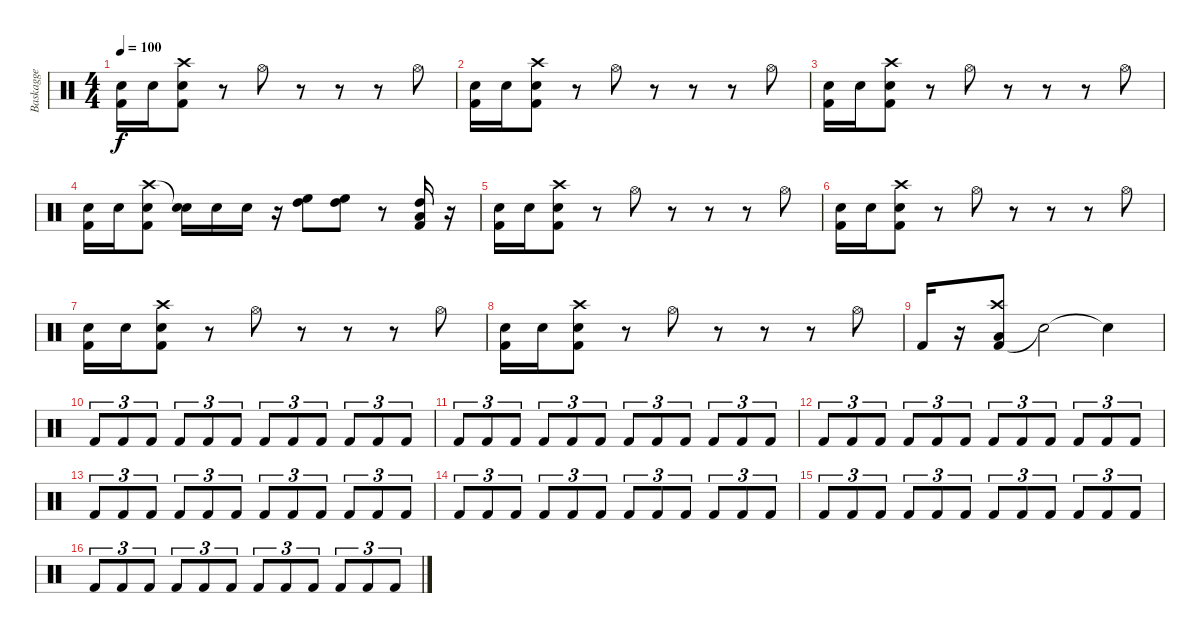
\track ("Baskagge" "Baskagge") {instrument percussion}
\staff {score}
\articulation defaults
\ts (4 4)
\tempo 100
\clef neutral
\ks c
("Kick (hit) 2" "Electric Snare (hit)").16{dy f} "Electric Snare (hit)".16 ("Crash high (hit)" "Kick (hit) 2" "Electric Snare (hit)").8 r.8 "Hi-Hat (open)".8 r.8 r.8 r.8 "Hi-Hat (open)".8 |
("Kick (hit) 2" "Electric Snare (hit)").16 "Electric Snare (hit)".16 ("Crash high (hit)" "Kick (hit) 2" "Electric Snare (hit)").8 r.8 "Hi-Hat (open)".8 r.8 r.8 r.8 "Hi-Hat (open)".8 |
("Kick (hit) 2" "Electric Snare (hit)").16 "Electric Snare (hit)".16 ("Crash high (hit)" "Kick (hit) 2" "Electric Snare (hit)").8 r.8 "Hi-Hat (open)".8 r.8 r.8 r.8 "Hi-Hat (open)".8 |
("Kick (hit) 2" "Electric Snare (hit)").16 "Electric Snare (hit)".16 ("Crash high (hit)" "Kick (hit) 2" "Electric Snare (hit)").8 ("Snare (hit)"{t} "Electric Snare (hit)").16 "Electric Snare (hit)".16 "Electric Snare (hit)".16 r.16 ("High Tom (hit)" "High Floor Tom (hit)").8 ("High Tom (hit)" "High Floor Tom (hit)").8 r.8 ("Kick (hit) 2" "High Tom (hit)" "Low Tom (hit)").16 r.16 |
("Kick (hit) 2" "Electric Snare (hit)").16 "Electric Snare (hit)".16 ("Crash high (hit)" "Kick (hit) 2" "Electric Snare (hit)").8 r.8 "Hi-Hat (open)".8 r.8 r.8 r.8 "Hi-Hat (open)".8 |
("Kick (hit) 2" "Electric Snare (hit)").16 "Electric Snare (hit)".16 ("Crash high (hit)" "Kick (hit) 2" "Electric Snare (hit)").8 r.8 "Hi-Hat (open)".8 r.8 r.8 r.8 "Hi-Hat (open)".8 |
("Kick (hit) 2" "Electric Snare (hit)").16 "Electric Snare (hit)".16 ("Crash high (hit)" "Kick (hit) 2" "Electric Snare (hit)").8 r.8 "Hi-Hat (open)".8 r.8 r.8 r.8 "Hi-Hat (open)".8 |
("Kick (hit) 2" "Electric Snare (hit)").16 "Electric Snare (hit)".16 ("Crash high (hit)" "Kick (hit) 2" "Electric Snare (hit)").8 r.8 "Hi-Hat (open)".8 r.8 r.8 r.8 "Hi-Hat (open)".8 |
"Kick (hit) 2".16 r.16 ("Kick (hit) 2" "Low Tom (hit)" "Crash high (hit)").8 "Snare (hit)"{t}.2 "Snare (hit)"{t}.4 |
"Kick (hit) 2".8{tu (3 2)} "Kick (hit) 2".8{tu (3 2)} "Kick (hit) 2".8{tu (3 2)} "Kick (hit) 2".8{tu (3 2)} "Kick (hit) 2".8{tu (3 2)} "Kick (hit) 2".8{tu (3 2)} "Kick (hit) 2".8{tu (3 2)} "Kick (hit) 2".8{tu (3 2)} "Kick (hit) 2".8{tu (3 2)} "Kick (hit) 2".8{tu (3 2)} "Kick (hit) 2".8{tu (3 2)} "Kick (hit) 2".8{tu (3 2)} |
"Kick (hit) 2".8{tu (3 2)} "Kick (hit) 2".8{tu (3 2)} "Kick (hit) 2".8{tu (3 2)} "Kick (hit) 2".8{tu (3 2)} "Kick (hit) 2".8{tu (3 2)} "Kick (hit) 2".8{tu (3 2)} "Kick (hit) 2".8{tu (3 2)} "Kick (hit) 2".8{tu (3 2)} "Kick (hit) 2".8{tu (3 2)} "Kick (hit) 2".8{tu (3 2)} "Kick (hit) 2".8{tu (3 2)} "Kick (hit) 2".8{tu (3 2)} |
"Kick (hit) 2".8{tu (3 2)} "Kick (hit) 2".8{tu (3 2)} "Kick (hit) 2".8{tu (3 2)} "Kick (hit) 2".8{tu (3 2)} "Kick (hit) 2".8{tu (3 2)} "Kick (hit) 2".8{tu (3 2)} "Kick (hit) 2".8{tu (3 2)} "Kick (hit) 2".8{tu (3 2)} "Kick (hit) 2".8{tu (3 2)} "Kick (hit) 2".8{tu (3 2)} "Kick (hit) 2".8{tu (3 2)} "Kick (hit) 2".8{tu (3 2)} |
"Kick (hit) 2".8{tu (3 2)} "Kick (hit) 2".8{tu (3 2)} "Kick (hit) 2".8{tu (3 2)} "Kick (hit) 2".8{tu (3 2)} "Kick (hit) 2".8{tu (3 2)} "Kick (hit) 2".8{tu (3 2)} "Kick (hit) 2".8{tu (3 2)} "Kick (hit) 2".8{tu (3 2)} "Kick (hit) 2".8{tu (3 2)} "Kick (hit) 2".8{tu (3 2)} "Kick (hit) 2".8{tu (3 2)} "Kick (hit) 2".8{tu (3 2)} |
"Kick (hit) 2".8{tu (3 2)} "Kick (hit) 2".8{tu (3 2)} "Kick (hit) 2".8{tu (3 2)} "Kick (hit) 2".8{tu (3 2)} "Kick (hit) 2".8{tu (3 2)} "Kick (hit) 2".8{tu (3 2)} "Kick (hit) 2".8{tu (3 2)} "Kick (hit) 2".8{tu (3 2)} "Kick (hit) 2".8{tu (3 2)} "Kick (hit) 2".8{tu (3 2)} "Kick (hit) 2".8{tu (3 2)} "Kick (hit) 2".8{tu (3 2)} |
"Kick (hit) 2".8{tu (3 2)} "Kick (hit) 2".8{tu (3 2)} "Kick (hit) 2".8{tu (3 2)} "Kick (hit) 2".8{tu (3 2)} "Kick (hit) 2".8{tu (3 2)} "Kick (hit) 2".8{tu (3 2)} "Kick (hit) 2".8{tu (3 2)} "Kick (hit) 2".8{tu (3 2)} "Kick (hit) 2".8{tu (3 2)} "Kick (hit) 2".8{tu (3 2)} "Kick (hit) 2".8{tu (3 2)} "Kick (hit) 2".8{tu (3 2)} |
"Kick (hit) 2".8{tu (3 2)} "Kick (hit) 2".8{tu (3 2)} "Kick (hit) 2".8{tu (3 2)} "Kick (hit) 2".8{tu (3 2)} "Kick (hit) 2".8{tu (3 2)} "Kick (hit) 2".8{tu (3 2)} "Kick (hit) 2".8{tu (3 2)} "Kick (hit) 2".8{tu (3 2)} "Kick (hit) 2".8{tu (3 2)} "Kick (hit) 2".8{tu (3 2)} "Kick (hit) 2".8{tu (3 2)} "Kick (hit) 2".8{tu (3 2)}
